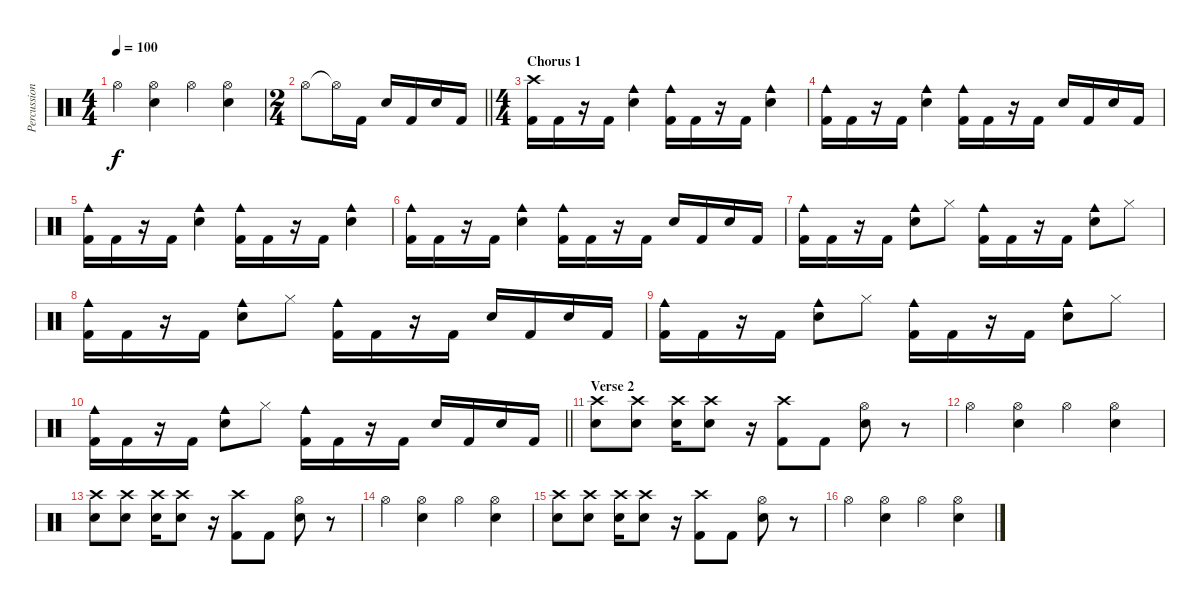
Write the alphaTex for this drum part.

\track ("Percussion" "Percussion") {instrument percussion}
\staff {score}
\articulation defaults
\ts (4 4)
\tempo 100
\clef neutral
\ks c "Hi-Hat (open)".4{dy f}
("Hi-Hat (open)" "Snare (hit) 2").4 "Hi-Hat (open)".4 ("Hi-Hat (open)" "Snare (hit) 2").4 |
\ts (2 4)
\barLineRight lightlight "Hi-Hat (open)".8 "Hi-Hat (open)"{t}.16 "Kick (hit) 2".16 "Snare (hit) 2".16 "Kick (hit) 2".16 "Snare (hit) 2".16 "Kick (hit) 2".16
|
\ts (4 4)
\section ("" "Chorus 1")
("Crash high (hit)" "Kick (hit) 2").16 "Kick (hit) 2".16 r.16 "Kick (hit) 2".16 ("Cowbell medium (hit)" "Snare (hit) 2").4 ("Cowbell medium (hit)" "Kick (hit) 2").16 "Kick (hit) 2".16 r.16 "Kick (hit) 2".16 ("Cowbell medium (hit)" "Snare (hit) 2").4 |
("Cowbell medium (hit)" "Kick (hit) 2").16 "Kick (hit) 2".16 r.16 "Kick (hit) 2".16 ("Cowbell medium (hit)" "Snare (hit) 2").4 ("Cowbell medium (hit)" "Kick (hit) 2").16 "Kick (hit) 2".16 r.16 "Kick (hit) 2".16 "Snare (hit) 2".16 "Kick (hit) 2".16 "Snare (hit) 2".16 "Kick (hit) 2".16 |
("Cowbell medium (hit)" "Kick (hit) 2").16 "Kick (hit) 2".16 r.16 "Kick (hit) 2".16 ("Cowbell medium (hit)" "Snare (hit) 2").4 ("Cowbell medium (hit)" "Kick (hit) 2").16 "Kick (hit) 2".16 r.16 "Kick (hit) 2".16 ("Cowbell medium (hit)" "Snare (hit) 2").4 |
("Cowbell medium (hit)" "Kick (hit) 2").16 "Kick (hit) 2".16 r.16 "Kick (hit) 2".16 ("Cowbell medium (hit)" "Snare (hit) 2").4 ("Cowbell medium (hit)" "Kick (hit) 2").16 "Kick (hit) 2".16 r.16 "Kick (hit) 2".16 "Snare (hit) 2".16 "Kick (hit) 2".16 "Snare (hit) 2".16 "Kick (hit) 2".16 |
("Cowbell medium (hit)" "Kick (hit) 2").16 "Kick (hit) 2".16 r.16 "Kick (hit) 2".16 ("Cowbell medium (hit)" "Snare (hit) 2").8 "Hi-Hat (closed)".8 ("Cowbell medium (hit)" "Kick (hit) 2").16 "Kick (hit) 2".16 r.16 "Kick (hit) 2".16 ("Cowbell medium (hit)" "Snare (hit) 2").8 "Hi-Hat (closed)".8 |
("Cowbell medium (hit)" "Kick (hit) 2").16 "Kick (hit) 2".16 r.16 "Kick (hit) 2".16 ("Cowbell medium (hit)" "Snare (hit) 2").8 "Hi-Hat (closed)".8 ("Cowbell medium (hit)" "Kick (hit) 2").16 "Kick (hit) 2".16 r.16 "Kick (hit) 2".16 "Snare (hit) 2".16 "Kick (hit) 2".16 "Snare (hit) 2".16 "Kick (hit) 2".16 |
("Cowbell medium (hit)" "Kick (hit) 2").16 "Kick (hit) 2".16 r.16 "Kick (hit) 2".16 ("Cowbell medium (hit)" "Snare (hit) 2").8 "Hi-Hat (closed)".8 ("Cowbell medium (hit)" "Kick (hit) 2").16 "Kick (hit) 2".16 r.16 "Kick (hit) 2".16 ("Cowbell medium (hit)" "Snare (hit) 2").8 "Hi-Hat (closed)".8 |
\barLineRight lightlight
("Cowbell medium (hit)" "Kick (hit) 2").16 "Kick (hit) 2".16 r.16 "Kick (hit) 2".16 ("Cowbell medium (hit)" "Snare (hit) 2").8 "Hi-Hat (closed)".8 ("Cowbell medium (hit)" "Kick (hit) 2").16 "Kick (hit) 2".16 r.16 "Kick (hit) 2".16 "Snare (hit) 2".16 "Kick (hit) 2".16 "Snare (hit) 2".16 "Kick (hit) 2".16 |
\section ("" "Verse 2")
("Crash high (hit)" "Snare (hit) 2").8 ("Crash high (hit)" "Snare (hit) 2").8 ("Crash high (hit)" "Snare (hit) 2").16 ("Crash high (hit)" "Snare (hit) 2").8 r.16 ("Crash high (hit)" "Kick (hit) 2").8 "Kick (hit) 2".8 ("Hi-Hat (open)" "Snare (hit) 2").8 r.8 |
"Hi-Hat (open)".4 ("Hi-Hat (open)" "Snare (hit) 2").4 "Hi-Hat (open)".4 ("Hi-Hat (open)" "Snare (hit) 2").4 |
("Crash high (hit)" "Snare (hit) 2").8 ("Crash high (hit)" "Snare (hit) 2").8 ("Crash high (hit)" "Snare (hit) 2").16 ("Crash high (hit)" "Snare (hit) 2").8 r.16 ("Crash high (hit)" "Kick (hit) 2").8 "Kick (hit) 2".8 ("Hi-Hat (open)" "Snare (hit) 2").8 r.8 |
"Hi-Hat (open)".4 ("Hi-Hat (open)" "Snare (hit) 2").4 "Hi-Hat (open)".4 ("Hi-Hat (open)" "Snare (hit) 2").4 |
("Crash high (hit)" "Snare (hit) 2").8 ("Crash high (hit)" "Snare (hit) 2").8 ("Crash high (hit)" "Snare (hit) 2").16 ("Crash high (hit)" "Snare (hit) 2").8 r.16 ("Crash high (hit)" "Kick (hit) 2").8 "Kick (hit) 2".8 ("Hi-Hat (open)" "Snare (hit) 2").8 r.8 |
"Hi-Hat (open)".4 ("Hi-Hat (open)" "Snare (hit) 2").4 "Hi-Hat (open)".4 ("Hi-Hat (open)" "Snare (hit) 2").4
